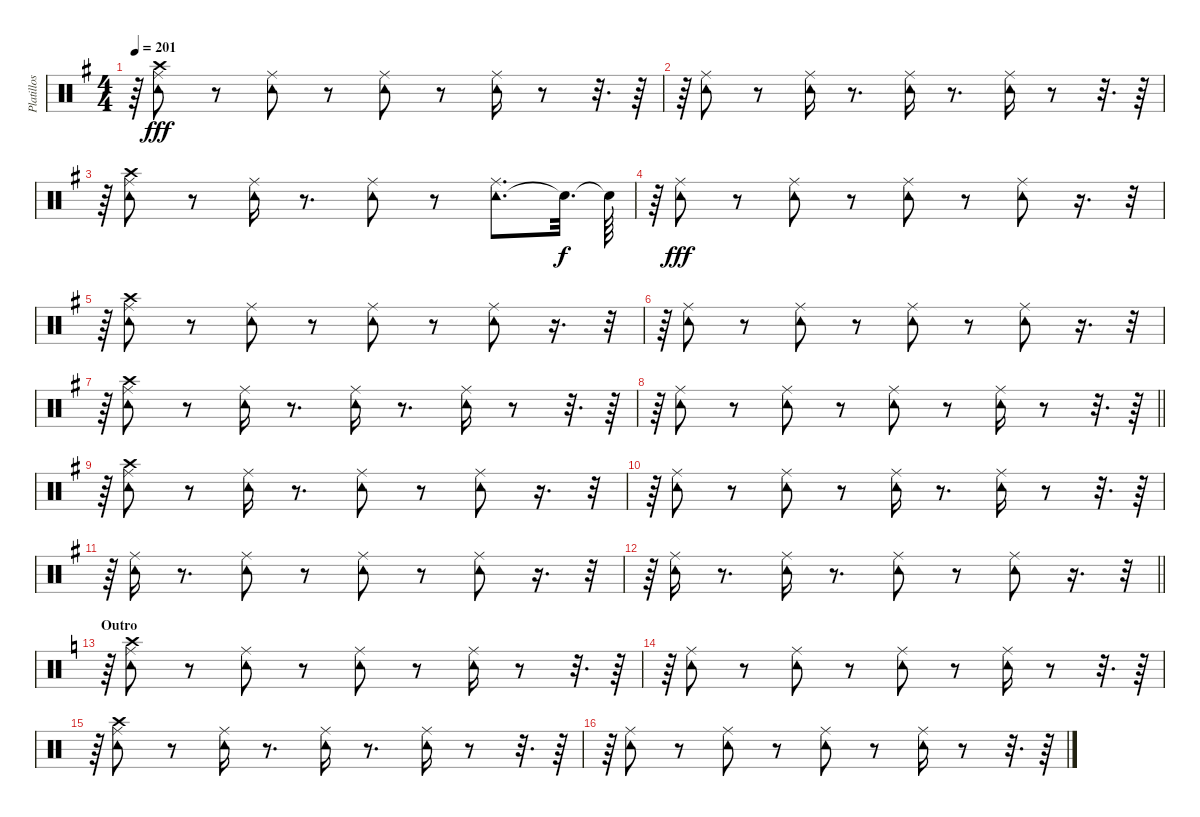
\track ("Platillos y pandero" "Platillos ") {instrument percussion}
\staff {score}
\articulation defaults
\ts (4 4)
\tempo 201
\clef neutral
\ks g
r.64{dy fff} ("Crash high (hit)" "Ride (middle)" "Tambourine (hit)").8 r.8 ("Ride (middle)" "Tambourine (hit)").8 r.8 ("Ride (middle)" "Tambourine (hit)").8 r.8 ("Ride (middle)" "Tambourine (hit)").16 r.8 r.32{d} r.64 |
r.64 ("Ride (middle)" "Tambourine (hit)").8 r.8 ("Ride (middle)" "Tambourine (hit)").16 r.8{d} ("Tambourine (hit)" "Ride (middle)").16 r.8{d} ("Tambourine (hit)" "Ride (middle)").16 r.8 r.32{d} r.64 |
r.64 ("Tambourine (hit)" "Crash high (hit)" "Ride (middle)").8 r.8 ("Ride (middle)" "Tambourine (hit)").16 r.8{d} ("Ride (middle)" "Tambourine (hit)").8 r.8 ("Tambourine (hit)" "Ride (middle)").8{d} "Snare (hit)"{t}.32{d dy f} "Snare (hit)"{t}.64 |
r.64 ("Tambourine (hit)" "Ride (middle)").8{dy fff} r.8 ("Ride (middle)" "Tambourine (hit)").8 r.8 ("Ride (middle)" "Tambourine (hit)").8 r.8 ("Ride (middle)" "Tambourine (hit)").8 r.16{d} r.32{tu (5 4)} |
r.64 ("Ride (middle)" "Crash high (hit)" "Tambourine (hit)").8 r.8 ("Ride (middle)" "Tambourine (hit)").8 r.8 ("Ride (middle)" "Tambourine (hit)").8 r.8 ("Ride (middle)" "Tambourine (hit)").8 r.16{d} r.32{tu (5 4)} |
r.64 ("Ride (middle)" "Tambourine (hit)").8 r.8 ("Ride (middle)" "Tambourine (hit)").8 r.8 ("Ride (middle)" "Tambourine (hit)").8 r.8 ("Ride (middle)" "Tambourine (hit)").8 r.16{d} r.32{tu (5 4)} |
r.64 ("Crash high (hit)" "Ride (middle)" "Tambourine (hit)").8 r.8 ("Tambourine (hit)" "Ride (middle)").16 r.8{d} ("Tambourine (hit)" "Ride (middle)").16 r.8{d} ("Tambourine (hit)" "Ride (middle)").16 r.8 r.32{d} r.64 |
\barLineRight lightlight
r.64 ("Ride (middle)" "Tambourine (hit)").8 r.8 ("Ride (middle)" "Tambourine (hit)").8 r.8 ("Ride (middle)" "Tambourine (hit)").8 r.8 ("Tambourine (hit)" "Ride (middle)").16 r.8 r.32{d} r.64 |
r.64 ("Tambourine (hit)" "Ride (middle)" "Crash high (hit)").8 r.8 ("Tambourine (hit)" "Ride (middle)").16 r.8{d} ("Ride (middle)" "Tambourine (hit)").8 r.8 ("Ride (middle)" "Tambourine (hit)").8 r.16{d} r.32{tu (5 4)} |
r.64 ("Ride (middle)" "Tambourine (hit)").8 r.8 ("Ride (middle)" "Tambourine (hit)").8 r.8 ("Ride (middle)" "Tambourine (hit)").16 r.8{d} ("Tambourine (hit)" "Ride (middle)").16 r.8 r.32{d} r.64 |
r.64 ("Tambourine (hit)" "Ride (middle)").16 r.8{d} ("Ride (middle)" "Tambourine (hit)").8 r.8 ("Tambourine (hit)" "Ride (middle)").8 r.8 ("Tambourine (hit)" "Ride (middle)").8 r.16{d} r.32{tu (5 4)} |
\barLineRight lightlight
r.64 ("Tambourine (hit)" "Ride (middle)").16 r.8{d} ("Tambourine (hit)" "Ride (middle)").16 r.8{d} ("Ride (middle)" "Tambourine (hit)").8 r.8 ("Ride (middle)" "Tambourine (hit)").8 r.16{d} r.32{tu (5 4)} |
\section ("" "Outro")
\ks c
r.64 ("Ride (middle)" "Crash high (hit)" "Tambourine (hit)").8 r.8 ("Ride (middle)" "Tambourine (hit)").8 r.8 ("Ride (middle)" "Tambourine (hit)").8 r.8 ("Tambourine (hit)" "Ride (middle)").16 r.8 r.32{d} r.64 |
r.64 ("Ride (middle)" "Tambourine (hit)").8 r.8 ("Ride (middle)" "Tambourine (hit)").8 r.8 ("Ride (middle)" "Tambourine (hit)").8 r.8 ("Ride (middle)" "Tambourine (hit)").16 r.8 r.32{d} r.64 |
r.64 ("Crash high (hit)" "Ride (middle)" "Tambourine (hit)").8 r.8 ("Ride (middle)" "Tambourine (hit)").16 r.8{d} ("Tambourine (hit)" "Ride (middle)").16 r.8{d} ("Ride (middle)" "Tambourine (hit)").16 r.8 r.32{d} r.64 |
r.64 ("Tambourine (hit)" "Ride (middle)").8 r.8 ("Ride (middle)" "Tambourine (hit)").8 r.8 ("Ride (middle)" "Tambourine (hit)").8 r.8 ("Ride (middle)" "Tambourine (hit)").16 r.8 r.32{d} r.64
